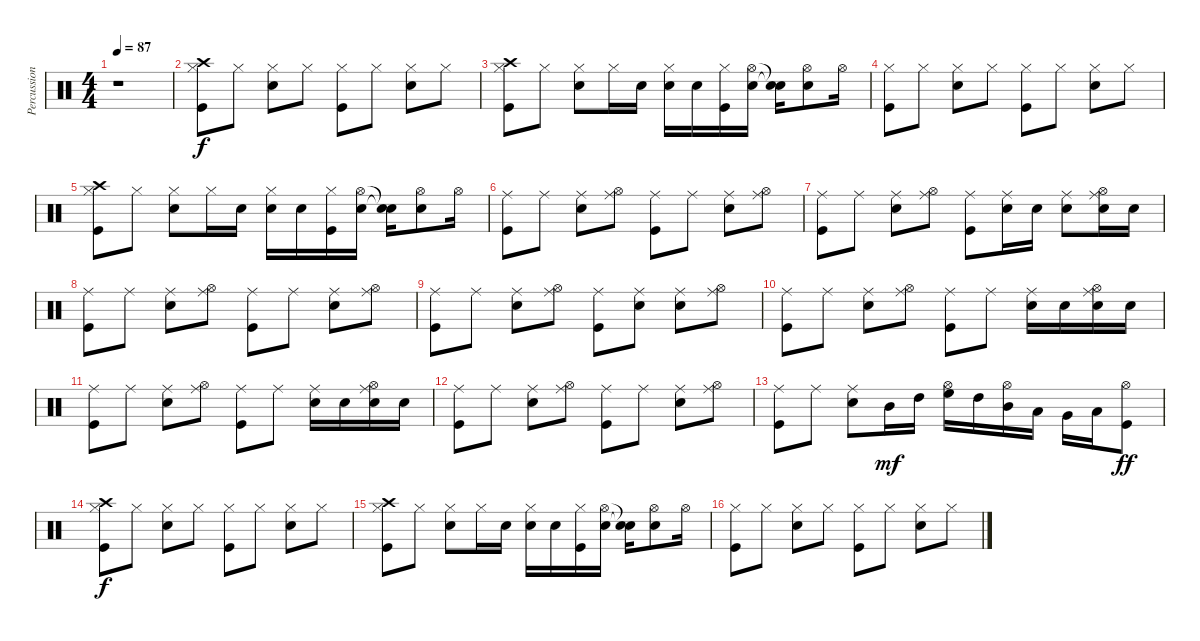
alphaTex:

\track ("Percussion" "Percussion") {instrument percussion}
\staff {score}
\articulation defaults
\ts (4 4)
\tempo 87
\clef neutral
\ks c
r.1{dy f} |
("Crash high (hit)" "Hi-Hat (closed)" "Kick (hit)").8 "Hi-Hat (closed)".8 ("Hi-Hat (closed)" "Snare (hit) 2").8 "Hi-Hat (closed)".8 ("Hi-Hat (closed)" "Kick (hit)").8 "Hi-Hat (closed)".8 ("Hi-Hat (closed)" "Snare (hit) 2").8 "Hi-Hat (closed)".8 |
("Crash high (hit)" "Hi-Hat (closed)" "Kick (hit)").8 "Hi-Hat (closed)".8 ("Hi-Hat (closed)" "Snare (hit) 2").8 "Hi-Hat (closed)".16 "Snare (hit) 2".16 ("Hi-Hat (closed)" "Snare (hit) 2").16 "Snare (hit) 2".16 ("Hi-Hat (closed)" "Kick (hit)").16 ("Hi-Hat (open)" "Snare (hit) 2").16 ("Snare (hit)"{t} "Snare (hit)"{t}).16 ("Hi-Hat (open)" "Snare (hit) 2").8 "Hi-Hat (open)".16 |
("Hi-Hat (closed)" "Kick (hit)").8 "Hi-Hat (closed)".8 ("Hi-Hat (closed)" "Snare (hit) 2").8 "Hi-Hat (closed)".8 ("Hi-Hat (closed)" "Kick (hit)").8 "Hi-Hat (closed)".8 ("Hi-Hat (closed)" "Snare (hit) 2").8 "Hi-Hat (closed)".8 |
("Crash high (hit)" "Hi-Hat (closed)" "Kick (hit)").8 "Hi-Hat (closed)".8 ("Hi-Hat (closed)" "Snare (hit) 2").8 "Hi-Hat (closed)".16 "Snare (hit) 2".16 ("Hi-Hat (closed)" "Snare (hit) 2").16 "Snare (hit) 2".16 ("Hi-Hat (closed)" "Kick (hit)").16 ("Hi-Hat (open)" "Snare (hit) 2").16 ("Snare (hit)"{t} "Snare (hit)"{t}).16 ("Hi-Hat (open)" "Snare (hit) 2").8 "Hi-Hat (open)".16 |
("Ride (middle)" "Kick (hit)").8 "Ride (middle)".8 ("Ride (middle)" "Snare (hit) 2").8 ("Hi-Hat (open)" "Ride (middle)").8 ("Ride (middle)" "Kick (hit)").8 "Ride (middle)".8 ("Ride (middle)" "Snare (hit) 2").8 ("Hi-Hat (open)" "Ride (middle)").8 |
("Ride (middle)" "Kick (hit)").8 "Ride (middle)".8 ("Ride (middle)" "Snare (hit) 2").8 ("Hi-Hat (open)" "Ride (middle)").8 ("Ride (middle)" "Kick (hit)").8 ("Ride (middle)" "Snare (hit) 2").16 "Snare (hit) 2".16 ("Ride (middle)" "Snare (hit) 2").8 ("Hi-Hat (open)" "Ride (middle)" "Snare (hit) 2").16 "Snare (hit) 2".16 |
("Ride (middle)" "Kick (hit)").8 "Ride (middle)".8 ("Ride (middle)" "Snare (hit) 2").8 ("Hi-Hat (open)" "Ride (middle)").8 ("Ride (middle)" "Kick (hit)").8 "Ride (middle)".8 ("Ride (middle)" "Snare (hit) 2").8 ("Hi-Hat (open)" "Ride (middle)").8 |
("Ride (middle)" "Kick (hit)").8 "Ride (middle)".8 ("Ride (middle)" "Snare (hit) 2").8 ("Hi-Hat (open)" "Ride (middle)").8 ("Ride (middle)" "Kick (hit)").8 ("Ride (middle)" "Snare (hit) 2").8 ("Ride (middle)" "Snare (hit) 2").8 ("Hi-Hat (open)" "Ride (middle)").8 |
("Ride (middle)" "Kick (hit)").8 "Ride (middle)".8 ("Ride (middle)" "Snare (hit) 2").8 ("Hi-Hat (open)" "Ride (middle)").8 ("Ride (middle)" "Kick (hit)").8 "Ride (middle)".8 ("Ride (middle)" "Snare (hit) 2").16 "Snare (hit) 2".16 ("Hi-Hat (open)" "Ride (middle)" "Snare (hit) 2").16 "Snare (hit) 2".16 |
("Ride (middle)" "Kick (hit)").8 "Ride (middle)".8 ("Ride (middle)" "Snare (hit) 2").8 ("Hi-Hat (open)" "Ride (middle)").8 ("Ride (middle)" "Kick (hit)").8 "Ride (middle)".8 ("Ride (middle)" "Snare (hit) 2").16 "Snare (hit) 2".16 ("Hi-Hat (open)" "Ride (middle)" "Snare (hit) 2").16 "Snare (hit) 2".16 |
("Ride (middle)" "Kick (hit)").8 "Ride (middle)".8 ("Ride (middle)" "Snare (hit) 2").8 ("Hi-Hat (open)" "Ride (middle)").8 ("Ride (middle)" "Kick (hit)").8 "Ride (middle)".8 ("Ride (middle)" "Snare (hit) 2").8 ("Hi-Hat (open)" "Ride (middle)").8 |
("Ride (middle)" "Kick (hit)").8 "Ride (middle)".8 ("Ride (middle)" "Snare (hit) 2").8 "Mid Tom (hit)".16{dy mf} "High Tom (hit)".16 ("Hi-Hat (open)" "High Floor Tom (hit)").16 "High Tom (hit)".16 ("Hi-Hat (open)" "Mid Tom (hit)").16 "Low Tom (hit)".16 "Very Low Tom (hit)".16 "Low Floor Tom (hit)".16 ("Hi-Hat (open)" "Kick (hit)").8{dy ff} |
("Crash high (hit)" "Hi-Hat (closed)" "Kick (hit)").8{dy f} "Hi-Hat (closed)".8 ("Hi-Hat (closed)" "Snare (hit) 2").8 "Hi-Hat (closed)".8 ("Hi-Hat (closed)" "Kick (hit)").8 "Hi-Hat (closed)".8 ("Hi-Hat (closed)" "Snare (hit) 2").8 "Hi-Hat (closed)".8 |
("Crash high (hit)" "Hi-Hat (closed)" "Kick (hit)").8 "Hi-Hat (closed)".8 ("Hi-Hat (closed)" "Snare (hit) 2").8 "Hi-Hat (closed)".16 "Snare (hit) 2".16 ("Hi-Hat (closed)" "Snare (hit) 2").16 "Snare (hit) 2".16 ("Hi-Hat (closed)" "Kick (hit)").16 ("Hi-Hat (open)" "Snare (hit) 2").16 ("Snare (hit)"{t} "Snare (hit)"{t}).16 ("Hi-Hat (open)" "Snare (hit) 2").8 "Hi-Hat (open)".16 |
("Hi-Hat (closed)" "Kick (hit)").8 "Hi-Hat (closed)".8 ("Hi-Hat (closed)" "Snare (hit) 2").8 "Hi-Hat (closed)".8 ("Hi-Hat (closed)" "Kick (hit)").8 "Hi-Hat (closed)".8 ("Hi-Hat (closed)" "Snare (hit) 2").8 "Hi-Hat (closed)".8
